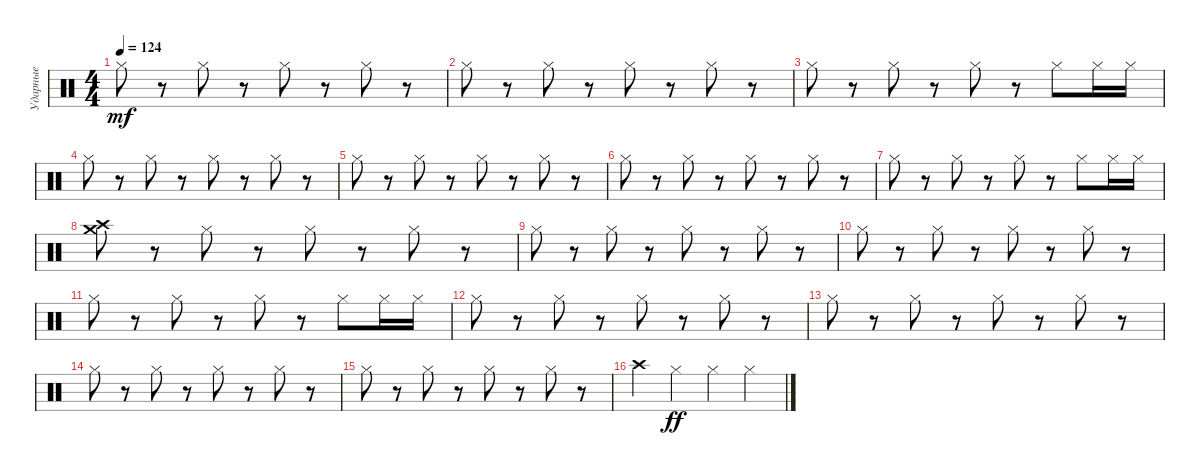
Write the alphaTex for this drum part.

\track ("Ударные" "Ударные") {instrument percussion}
\staff {score}
\articulation defaults
\ts (4 4)
\tempo 124
\clef neutral
\ks c "Hi-Hat (closed)".8{dy mf}
r.8 "Hi-Hat (closed)".8 r.8 "Hi-Hat (closed)".8 r.8 "Hi-Hat (closed)".8 r.8 |
"Hi-Hat (closed)".8 r.8 "Hi-Hat (closed)".8 r.8 "Hi-Hat (closed)".8 r.8 "Hi-Hat (closed)".8 r.8 |
"Hi-Hat (closed)".8 r.8 "Hi-Hat (closed)".8 r.8 "Hi-Hat (closed)".8 r.8 "Hi-Hat (closed)".8 "Hi-Hat (closed)".16 "Hi-Hat (closed)".16 |
"Hi-Hat (closed)".8 r.8 "Hi-Hat (closed)".8 r.8 "Hi-Hat (closed)".8 r.8 "Hi-Hat (closed)".8 r.8 |
"Hi-Hat (closed)".8 r.8 "Hi-Hat (closed)".8 r.8 "Hi-Hat (closed)".8 r.8 "Hi-Hat (closed)".8 r.8 |
"Hi-Hat (closed)".8 r.8 "Hi-Hat (closed)".8 r.8 "Hi-Hat (closed)".8 r.8 "Hi-Hat (closed)".8 r.8 |
"Hi-Hat (closed)".8 r.8 "Hi-Hat (closed)".8 r.8 "Hi-Hat (closed)".8 r.8 "Hi-Hat (closed)".8 "Hi-Hat (closed)".16 "Hi-Hat (closed)".16 |
("Crash high (hit)" "Crash medium (hit)").8 r.8 "Hi-Hat (closed)".8 r.8 "Hi-Hat (closed)".8 r.8 "Hi-Hat (closed)".8 r.8 |
"Hi-Hat (closed)".8 r.8 "Hi-Hat (closed)".8 r.8 "Hi-Hat (closed)".8 r.8 "Hi-Hat (closed)".8 r.8 |
"Hi-Hat (closed)".8 r.8 "Hi-Hat (closed)".8 r.8 "Hi-Hat (closed)".8 r.8 "Hi-Hat (closed)".8 r.8 |
"Hi-Hat (closed)".8 r.8 "Hi-Hat (closed)".8 r.8 "Hi-Hat (closed)".8 r.8 "Hi-Hat (closed)".8 "Hi-Hat (closed)".16 "Hi-Hat (closed)".16 |
"Hi-Hat (closed)".8 r.8 "Hi-Hat (closed)".8 r.8 "Hi-Hat (closed)".8 r.8 "Hi-Hat (closed)".8 r.8 |
"Hi-Hat (closed)".8 r.8 "Hi-Hat (closed)".8 r.8 "Hi-Hat (closed)".8 r.8 "Hi-Hat (closed)".8 r.8 |
"Hi-Hat (closed)".8 r.8 "Hi-Hat (closed)".8 r.8 "Hi-Hat (closed)".8 r.8 "Hi-Hat (closed)".8 r.8 |
"Hi-Hat (closed)".8 r.8 "Hi-Hat (closed)".8 r.8 "Hi-Hat (closed)".8 r.8 "Hi-Hat (closed)".8 r.8 |
"Crash high (hit)".4 "Hi-Hat (closed)".4{dy ff} "Hi-Hat (closed)".4 "Hi-Hat (closed)".4
